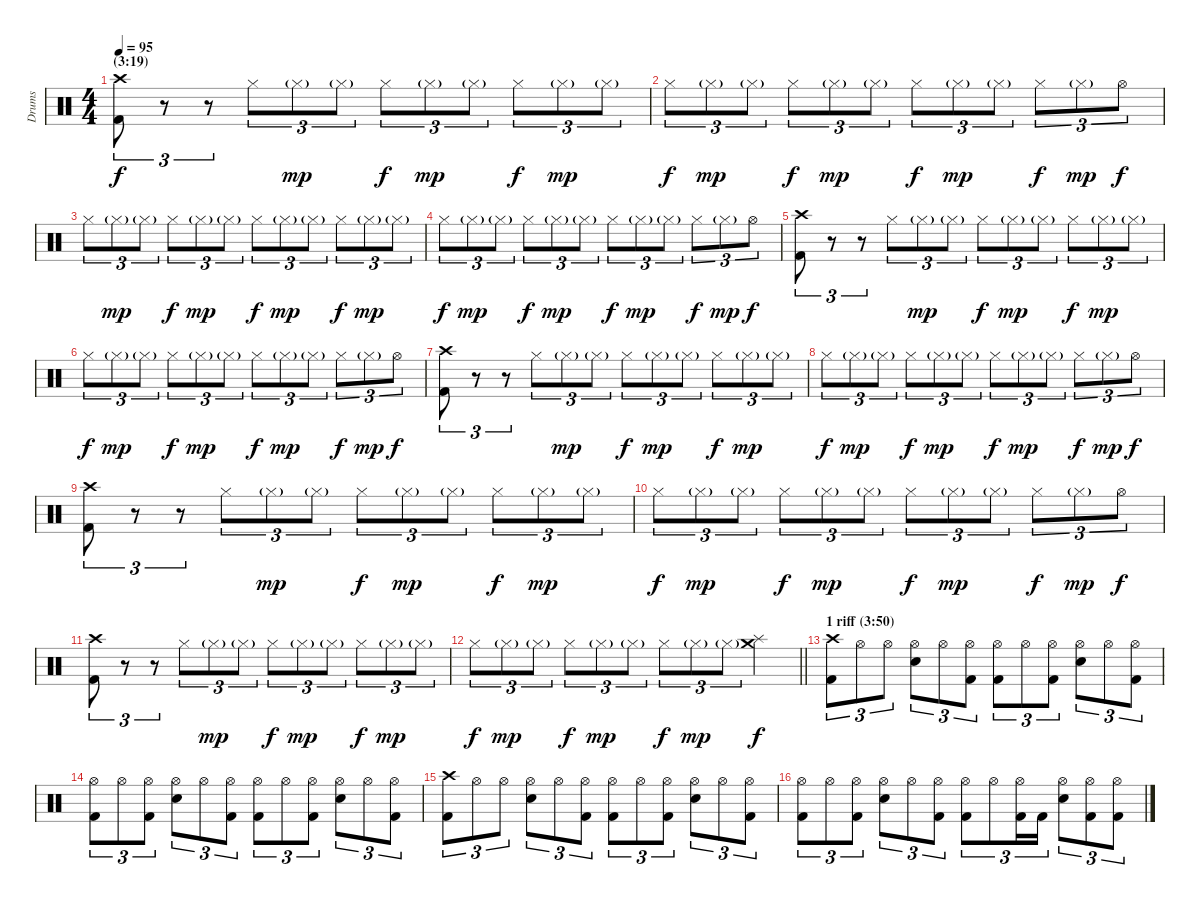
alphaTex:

\track ("Drums" "Drums") {instrument percussion}
\staff {score}
\articulation defaults
\ts (4 4)
\section ("" "(3:19)")
\tempo 95
\clef neutral
\ks c
("Crash high (hit)" "Kick (hit) 2").8{tu (3 2) dy f} r.8{tu (3 2)} r.8{tu (3 2)} "Hi-Hat (closed)".8{tu (3 2)} "Hi-Hat (closed)"{g}.8{tu (3 2) dy mp} "Hi-Hat (closed)"{g}.8{tu (3 2)} "Hi-Hat (closed)".8{tu (3 2) dy f} "Hi-Hat (closed)"{g}.8{tu (3 2) dy mp} "Hi-Hat (closed)"{g}.8{tu (3 2)} "Hi-Hat (closed)".8{tu (3 2) dy f} "Hi-Hat (closed)"{g}.8{tu (3 2) dy mp} "Hi-Hat (closed)"{g}.8{tu (3 2)} |
"Hi-Hat (closed)".8{tu (3 2) dy f} "Hi-Hat (closed)"{g}.8{tu (3 2) dy mp} "Hi-Hat (closed)"{g}.8{tu (3 2)} "Hi-Hat (closed)".8{tu (3 2) dy f} "Hi-Hat (closed)"{g}.8{tu (3 2) dy mp} "Hi-Hat (closed)"{g}.8{tu (3 2)} "Hi-Hat (closed)".8{tu (3 2) dy f} "Hi-Hat (closed)"{g}.8{tu (3 2) dy mp} "Hi-Hat (closed)"{g}.8{tu (3 2)} "Hi-Hat (closed)".8{tu (3 2) dy f} "Hi-Hat (closed)"{g}.8{tu (3 2) dy mp} "Hi-Hat (open)".8{tu (3 2) dy f} |
"Hi-Hat (closed)".8{tu (3 2)} "Hi-Hat (closed)"{g}.8{tu (3 2) dy mp} "Hi-Hat (closed)"{g}.8{tu (3 2)} "Hi-Hat (closed)".8{tu (3 2) dy f} "Hi-Hat (closed)"{g}.8{tu (3 2) dy mp} "Hi-Hat (closed)"{g}.8{tu (3 2)} "Hi-Hat (closed)".8{tu (3 2) dy f} "Hi-Hat (closed)"{g}.8{tu (3 2) dy mp} "Hi-Hat (closed)"{g}.8{tu (3 2)} "Hi-Hat (closed)".8{tu (3 2) dy f} "Hi-Hat (closed)"{g}.8{tu (3 2) dy mp} "Hi-Hat (closed)"{g}.8{tu (3 2)} |
"Hi-Hat (closed)".8{tu (3 2) dy f} "Hi-Hat (closed)"{g}.8{tu (3 2) dy mp} "Hi-Hat (closed)"{g}.8{tu (3 2)} "Hi-Hat (closed)".8{tu (3 2) dy f} "Hi-Hat (closed)"{g}.8{tu (3 2) dy mp} "Hi-Hat (closed)"{g}.8{tu (3 2)} "Hi-Hat (closed)".8{tu (3 2) dy f} "Hi-Hat (closed)"{g}.8{tu (3 2) dy mp} "Hi-Hat (closed)"{g}.8{tu (3 2)} "Hi-Hat (closed)".8{tu (3 2) dy f} "Hi-Hat (closed)"{g}.8{tu (3 2) dy mp} "Hi-Hat (open)".8{tu (3 2) dy f} |
("Crash high (hit)" "Kick (hit) 2").8{tu (3 2)} r.8{tu (3 2)} r.8{tu (3 2)} "Hi-Hat (closed)".8{tu (3 2)} "Hi-Hat (closed)"{g}.8{tu (3 2) dy mp} "Hi-Hat (closed)"{g}.8{tu (3 2)} "Hi-Hat (closed)".8{tu (3 2) dy f} "Hi-Hat (closed)"{g}.8{tu (3 2) dy mp} "Hi-Hat (closed)"{g}.8{tu (3 2)} "Hi-Hat (closed)".8{tu (3 2) dy f} "Hi-Hat (closed)"{g}.8{tu (3 2) dy mp} "Hi-Hat (closed)"{g}.8{tu (3 2)} |
"Hi-Hat (closed)".8{tu (3 2) dy f} "Hi-Hat (closed)"{g}.8{tu (3 2) dy mp} "Hi-Hat (closed)"{g}.8{tu (3 2)} "Hi-Hat (closed)".8{tu (3 2) dy f} "Hi-Hat (closed)"{g}.8{tu (3 2) dy mp} "Hi-Hat (closed)"{g}.8{tu (3 2)} "Hi-Hat (closed)".8{tu (3 2) dy f} "Hi-Hat (closed)"{g}.8{tu (3 2) dy mp} "Hi-Hat (closed)"{g}.8{tu (3 2)} "Hi-Hat (closed)".8{tu (3 2) dy f} "Hi-Hat (closed)"{g}.8{tu (3 2) dy mp} "Hi-Hat (open)".8{tu (3 2) dy f} |
("Crash high (hit)" "Kick (hit) 2").8{tu (3 2)} r.8{tu (3 2)} r.8{tu (3 2)} "Hi-Hat (closed)".8{tu (3 2)} "Hi-Hat (closed)"{g}.8{tu (3 2) dy mp} "Hi-Hat (closed)"{g}.8{tu (3 2)} "Hi-Hat (closed)".8{tu (3 2) dy f} "Hi-Hat (closed)"{g}.8{tu (3 2) dy mp} "Hi-Hat (closed)"{g}.8{tu (3 2)} "Hi-Hat (closed)".8{tu (3 2) dy f} "Hi-Hat (closed)"{g}.8{tu (3 2) dy mp} "Hi-Hat (closed)"{g}.8{tu (3 2)} |
"Hi-Hat (closed)".8{tu (3 2) dy f} "Hi-Hat (closed)"{g}.8{tu (3 2) dy mp} "Hi-Hat (closed)"{g}.8{tu (3 2)} "Hi-Hat (closed)".8{tu (3 2) dy f} "Hi-Hat (closed)"{g}.8{tu (3 2) dy mp} "Hi-Hat (closed)"{g}.8{tu (3 2)} "Hi-Hat (closed)".8{tu (3 2) dy f} "Hi-Hat (closed)"{g}.8{tu (3 2) dy mp} "Hi-Hat (closed)"{g}.8{tu (3 2)} "Hi-Hat (closed)".8{tu (3 2) dy f} "Hi-Hat (closed)"{g}.8{tu (3 2) dy mp} "Hi-Hat (open)".8{tu (3 2) dy f} |
("Crash high (hit)" "Kick (hit) 2").8{tu (3 2)} r.8{tu (3 2)} r.8{tu (3 2)} "Hi-Hat (closed)".8{tu (3 2)} "Hi-Hat (closed)"{g}.8{tu (3 2) dy mp} "Hi-Hat (closed)"{g}.8{tu (3 2)} "Hi-Hat (closed)".8{tu (3 2) dy f} "Hi-Hat (closed)"{g}.8{tu (3 2) dy mp} "Hi-Hat (closed)"{g}.8{tu (3 2)} "Hi-Hat (closed)".8{tu (3 2) dy f} "Hi-Hat (closed)"{g}.8{tu (3 2) dy mp} "Hi-Hat (closed)"{g}.8{tu (3 2)} |
"Hi-Hat (closed)".8{tu (3 2) dy f} "Hi-Hat (closed)"{g}.8{tu (3 2) dy mp} "Hi-Hat (closed)"{g}.8{tu (3 2)} "Hi-Hat (closed)".8{tu (3 2) dy f} "Hi-Hat (closed)"{g}.8{tu (3 2) dy mp} "Hi-Hat (closed)"{g}.8{tu (3 2)} "Hi-Hat (closed)".8{tu (3 2) dy f} "Hi-Hat (closed)"{g}.8{tu (3 2) dy mp} "Hi-Hat (closed)"{g}.8{tu (3 2)} "Hi-Hat (closed)".8{tu (3 2) dy f} "Hi-Hat (closed)"{g}.8{tu (3 2) dy mp} "Hi-Hat (open)".8{tu (3 2) dy f} |
("Crash high (hit)" "Kick (hit) 2").8{tu (3 2)} r.8{tu (3 2)} r.8{tu (3 2)} "Hi-Hat (closed)".8{tu (3 2)} "Hi-Hat (closed)"{g}.8{tu (3 2) dy mp} "Hi-Hat (closed)"{g}.8{tu (3 2)} "Hi-Hat (closed)".8{tu (3 2) dy f} "Hi-Hat (closed)"{g}.8{tu (3 2) dy mp} "Hi-Hat (closed)"{g}.8{tu (3 2)} "Hi-Hat (closed)".8{tu (3 2) dy f} "Hi-Hat (closed)"{g}.8{tu (3 2) dy mp} "Hi-Hat (closed)"{g}.8{tu (3 2)} |
\barLineRight lightlight "Hi-Hat (closed)".8{tu (3 2) dy f} "Hi-Hat (closed)"{g}.8{tu (3 2) dy mp} "Hi-Hat (closed)"{g}.8{tu (3 2)} "Hi-Hat (closed)".8{tu (3 2) dy f} "Hi-Hat (closed)"{g}.8{tu (3 2) dy mp} "Hi-Hat (closed)"{g}.8{tu (3 2)} "Hi-Hat (closed)".8{tu (3 2) dy f} "Hi-Hat (closed)"{g}.8{tu (3 2) dy mp} "Hi-Hat (closed)"{g}.8{tu (3 2)}
("Splash (hit)" "Crash medium (hit)").4{dy f} |
\section ("" "1 riff (3:50)")
("Crash high (hit)" "Kick (hit) 2").8{tu (3 2)} "Hi-Hat (open)".8{tu (3 2)} "Hi-Hat (open)".8{tu (3 2)} ("Hi-Hat (open)" "Snare (hit) 2").8{tu (3 2)} "Hi-Hat (open)".8{tu (3 2)} ("Hi-Hat (open)" "Kick (hit) 2").8{tu (3 2)} ("Hi-Hat (open)" "Kick (hit) 2").8{tu (3 2)} "Hi-Hat (open)".8{tu (3 2)} ("Hi-Hat (open)" "Kick (hit) 2").8{tu (3 2)} ("Hi-Hat (open)" "Snare (hit) 2").8{tu (3 2)} "Hi-Hat (open)".8{tu (3 2)} ("Hi-Hat (open)" "Kick (hit) 2").8{tu (3 2)} |
("Hi-Hat (open)" "Kick (hit) 2").8{tu (3 2)} "Hi-Hat (open)".8{tu (3 2)} ("Hi-Hat (open)" "Kick (hit) 2").8{tu (3 2)} ("Hi-Hat (open)" "Snare (hit) 2").8{tu (3 2)} "Hi-Hat (open)".8{tu (3 2)} ("Hi-Hat (open)" "Kick (hit) 2").8{tu (3 2)} ("Hi-Hat (open)" "Kick (hit) 2").8{tu (3 2)} "Hi-Hat (open)".8{tu (3 2)} ("Hi-Hat (open)" "Kick (hit) 2").8{tu (3 2)} ("Hi-Hat (open)" "Snare (hit) 2").8{tu (3 2)} "Hi-Hat (open)".8{tu (3 2)} ("Hi-Hat (open)" "Kick (hit) 2").8{tu (3 2)} |
("Crash high (hit)" "Kick (hit) 2").8{tu (3 2)} "Hi-Hat (open)".8{tu (3 2)} "Hi-Hat (open)".8{tu (3 2)} ("Hi-Hat (open)" "Snare (hit) 2").8{tu (3 2)} "Hi-Hat (open)".8{tu (3 2)} ("Hi-Hat (open)" "Kick (hit) 2").8{tu (3 2)} ("Hi-Hat (open)" "Kick (hit) 2").8{tu (3 2)} "Hi-Hat (open)".8{tu (3 2)} ("Hi-Hat (open)" "Kick (hit) 2").8{tu (3 2)} ("Hi-Hat (open)" "Snare (hit) 2").8{tu (3 2)} "Hi-Hat (open)".8{tu (3 2)} ("Hi-Hat (open)" "Kick (hit) 2").8{tu (3 2)} |
("Hi-Hat (open)" "Kick (hit) 2").8{tu (3 2)} "Hi-Hat (open)".8{tu (3 2)} ("Hi-Hat (open)" "Kick (hit) 2").8{tu (3 2)} ("Hi-Hat (open)" "Snare (hit) 2").8{tu (3 2)} "Hi-Hat (open)".8{tu (3 2)} ("Hi-Hat (open)" "Kick (hit) 2").8{tu (3 2)} ("Hi-Hat (open)" "Kick (hit) 2").8{tu (3 2)} "Hi-Hat (open)".8{tu (3 2)} ("Hi-Hat (open)" "Kick (hit) 2").16{tu (3 2)} "Kick (hit) 2".16{tu (3 2)} ("Hi-Hat (open)" "Snare (hit) 2").8{tu (3 2)} ("Hi-Hat (open)" "Kick (hit) 2").8{tu (3 2)} ("Hi-Hat (open)" "Kick (hit) 2").8{tu (3 2)}
